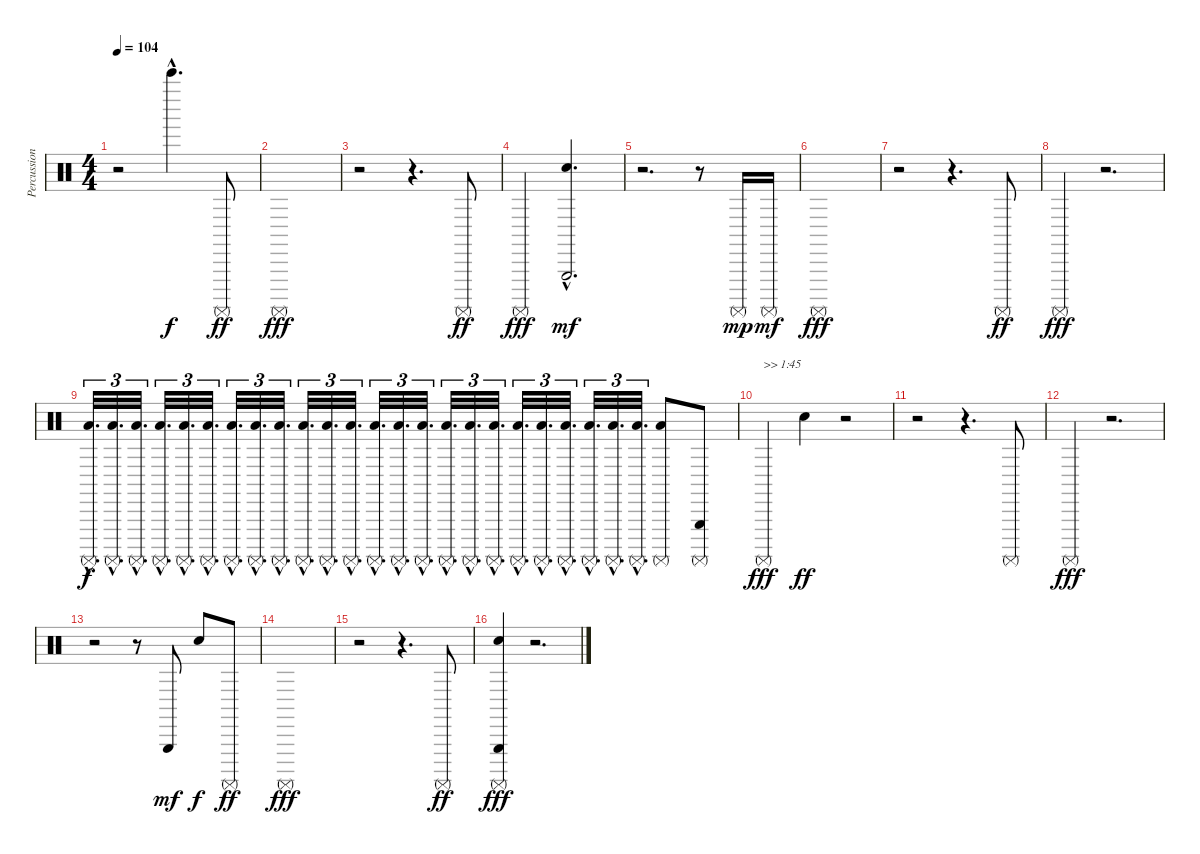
\track ("Percussion" "Percussion") {instrument percussion}
\staff {score}
\articulation defaults
\ts (4 4)
\tempo 104
\clef neutral
\ks c
r.2{dy mp} "Bell Tree (hit)"{hac}.4{d dy f} "Surdo (mute)".8{dy ff} |
"Surdo (mute)".1{dy fff} |
r.2 r.4{d} "Surdo (mute)".8{dy ff} |
"Surdo (mute)".4{dy fff} ("Metronome (bell)"{hac} "Triangle (hit)"{hac}).2{d dy mf} |
r.2{d} r.8 "Surdo (mute)".16{dy mp} "Surdo (mute)".16{dy mf} |
"Surdo (mute)".1{dy fff} |
r.2 r.4{d} "Surdo (mute)".8{dy ff} |
"Surdo (mute)".4{dy fff} r.2{d volume 3} |
("Surdo (mute)"{hac} "Low Floor Tom (hit)"{hac}).32{d tu (3 2) dy f volume 7} ("Surdo (mute)"{hac} "Low Floor Tom (hit)"{hac}).32{d tu (3 2)} ("Surdo (mute)"{hac} "Low Floor Tom (hit)"{hac}).32{d tu (3 2)} ("Surdo (mute)"{hac} "Low Floor Tom (hit)"{hac}).32{d tu (3 2)} ("Surdo (mute)"{hac} "Low Floor Tom (hit)"{hac}).32{d tu (3 2)} ("Surdo (mute)"{hac} "Low Floor Tom (hit)"{hac}).32{d tu (3 2)} ("Surdo (mute)"{hac} "Low Floor Tom (hit)"{hac}).32{d tu (3 2)} ("Surdo (mute)"{hac} "Low Floor Tom (hit)"{hac}).32{d tu (3 2)} ("Surdo (mute)"{hac} "Low Floor Tom (hit)"{hac}).32{d tu (3 2)} ("Surdo (mute)"{hac} "Low Floor Tom (hit)"{hac}).32{d tu (3 2)} ("Surdo (mute)"{hac} "Low Floor Tom (hit)"{hac}).32{d tu (3 2)} ("Surdo (mute)"{hac} "Low Floor Tom (hit)"{hac}).32{d tu (3 2)} ("Surdo (mute)"{hac} "Low Floor Tom (hit)"{hac}).32{d tu (3 2)} ("Surdo (mute)"{hac} "Low Floor Tom (hit)"{hac}).32{d tu (3 2)} ("Surdo (mute)"{hac} "Low Floor Tom (hit)"{hac}).32{d tu (3 2)} ("Surdo (mute)"{hac} "Low Floor Tom (hit)"{hac}).32{d tu (3 2)} ("Surdo (mute)"{hac} "Low Floor Tom (hit)"{hac}).32{d tu (3 2)} ("Surdo (mute)"{hac} "Low Floor Tom (hit)"{hac}).32{d tu (3 2)} ("Surdo (mute)"{hac} "Low Floor Tom (hit)"{hac}).32{d tu (3 2)} ("Surdo (mute)"{hac} "Low Floor Tom (hit)"{hac}).32{d tu (3 2)} ("Surdo (mute)"{hac} "Low Floor Tom (hit)"{hac}).32{d tu (3 2)} ("Surdo (mute)"{hac} "Low Floor Tom (hit)"{hac}).32{d tu (3 2)} ("Surdo (mute)"{hac} "Low Floor Tom (hit)"{hac}).32{d tu (3 2)} ("Surdo (mute)"{hac} "Low Floor Tom (hit)"{hac}).32{d tu (3 2)} ("Surdo (mute)" "Low Floor Tom (hit)").8 ("Triangle (hit)" "Surdo (mute)").8 |
"Surdo (mute)".4{txt ">> 1:45" dy fff} "Metronome (bell)".4{dy ff} r.2 |
r.2 r.4{d} "Surdo (mute)".8 |
"Surdo (mute)".4{dy fff} r.2{d} |
r.2 r.8 "Triangle (hit)".8{dy mf} "Metronome (bell)".8{dy f} "Surdo (mute)".8{dy ff} |
"Surdo (mute)".1{dy fff} |
r.2 r.4{d} "Surdo (mute)".8{dy ff} |
("Metronome (bell)" "Triangle (hit)" "Surdo (mute)").4{dy fff} r.2{d}
